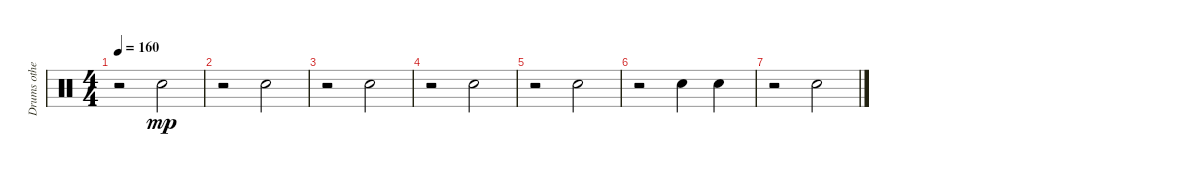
\track ("Drums others" "Drums othe") {instrument percussion}
\staff {score}
\articulation defaults
\ts (4 4)
\tempo 160
\clef neutral
\ks c
r.2{dy mp} "Snare (hit) 2".2 |
r.2 "Snare (hit) 2".2 |
r.2 "Snare (hit) 2".2 |
r.2 "Snare (hit) 2".2 |
r.2 "Snare (hit) 2".2 |
r.2 "Snare (hit) 2".4 "Snare (hit) 2".4 |
r.2 "Snare (hit) 2".2
